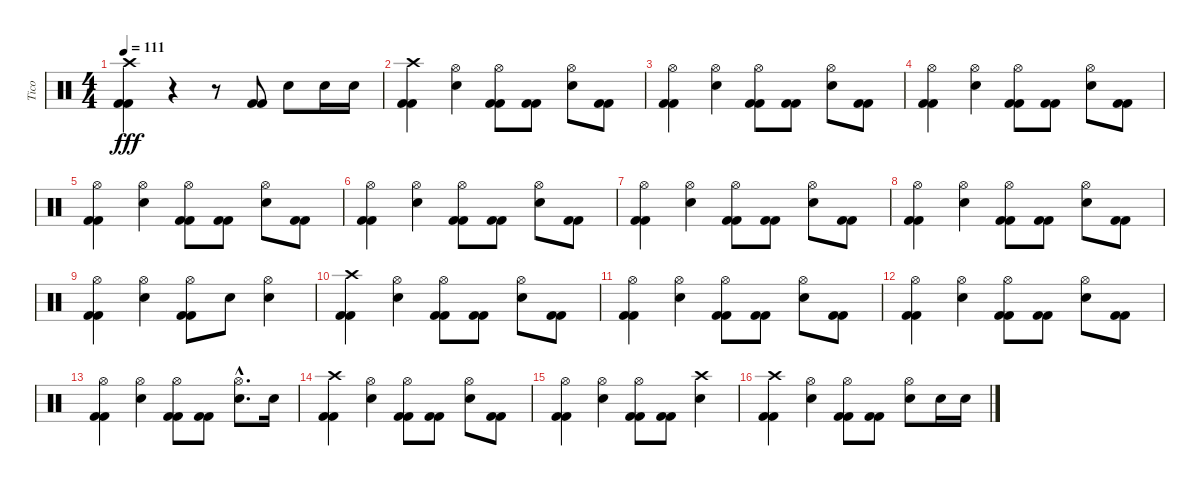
\track ("Tico" "Tico") {instrument percussion}
\staff {score}
\articulation defaults
\ts (4 4)
\tempo 111
\clef neutral
\ks c
("Crash high (hit)" "Kick (hit) 2" "Kick (hit) 2").4{dy fff} r.4 r.8 ("Kick (hit) 2" "Kick (hit) 2").8 "Snare (hit) 2".8 "Snare (hit) 2".16 "Snare (hit) 2".16 |
("Crash high (hit)" "Kick (hit) 2" "Kick (hit) 2").4 ("Hi-Hat (open)" "Snare (hit) 2").4 ("Hi-Hat (open)" "Kick (hit) 2" "Kick (hit) 2").8 ("Kick (hit) 2" "Kick (hit) 2").8 ("Hi-Hat (open)" "Snare (hit) 2").8 ("Kick (hit) 2" "Kick (hit) 2").8 |
("Hi-Hat (open)" "Kick (hit) 2" "Kick (hit) 2").4 ("Hi-Hat (open)" "Snare (hit) 2").4 ("Hi-Hat (open)" "Kick (hit) 2" "Kick (hit) 2").8 ("Kick (hit) 2" "Kick (hit) 2").8 ("Hi-Hat (open)" "Snare (hit) 2").8 ("Kick (hit) 2" "Kick (hit) 2").8 |
("Hi-Hat (open)" "Kick (hit) 2" "Kick (hit) 2").4 ("Hi-Hat (open)" "Snare (hit) 2").4 ("Hi-Hat (open)" "Kick (hit) 2" "Kick (hit) 2").8 ("Kick (hit) 2" "Kick (hit) 2").8 ("Hi-Hat (open)" "Snare (hit) 2").8 ("Kick (hit) 2" "Kick (hit) 2").8 |
("Hi-Hat (open)" "Kick (hit) 2" "Kick (hit) 2").4 ("Hi-Hat (open)" "Snare (hit) 2").4 ("Hi-Hat (open)" "Kick (hit) 2" "Kick (hit) 2").8 ("Kick (hit) 2" "Kick (hit) 2").8 ("Hi-Hat (open)" "Snare (hit) 2").8 ("Kick (hit) 2" "Kick (hit) 2").8 |
("Hi-Hat (open)" "Kick (hit) 2" "Kick (hit) 2").4 ("Hi-Hat (open)" "Snare (hit) 2").4 ("Hi-Hat (open)" "Kick (hit) 2" "Kick (hit) 2").8 ("Kick (hit) 2" "Kick (hit) 2").8 ("Hi-Hat (open)" "Snare (hit) 2").8 ("Kick (hit) 2" "Kick (hit) 2").8 |
("Hi-Hat (open)" "Kick (hit) 2" "Kick (hit) 2").4 ("Hi-Hat (open)" "Snare (hit) 2").4 ("Hi-Hat (open)" "Kick (hit) 2" "Kick (hit) 2").8 ("Kick (hit) 2" "Kick (hit) 2").8 ("Hi-Hat (open)" "Snare (hit) 2").8 ("Kick (hit) 2" "Kick (hit) 2").8 |
("Hi-Hat (open)" "Kick (hit) 2" "Kick (hit) 2").4 ("Hi-Hat (open)" "Snare (hit) 2").4 ("Hi-Hat (open)" "Kick (hit) 2" "Kick (hit) 2").8 ("Kick (hit) 2" "Kick (hit) 2").8 ("Hi-Hat (open)" "Snare (hit) 2").8 ("Kick (hit) 2" "Kick (hit) 2").8 |
("Hi-Hat (open)" "Kick (hit) 2" "Kick (hit) 2").4 ("Hi-Hat (open)" "Snare (hit) 2").4 ("Hi-Hat (open)" "Kick (hit) 2" "Kick (hit) 2").8 "Snare (hit) 2".8 ("Hi-Hat (open)" "Snare (hit) 2").4 |
("Crash high (hit)" "Kick (hit) 2" "Kick (hit) 2").4 ("Hi-Hat (open)" "Snare (hit) 2").4 ("Hi-Hat (open)" "Kick (hit) 2" "Kick (hit) 2").8 ("Kick (hit) 2" "Kick (hit) 2").8 ("Hi-Hat (open)" "Snare (hit) 2").8 ("Kick (hit) 2" "Kick (hit) 2").8 |
("Hi-Hat (open)" "Kick (hit) 2" "Kick (hit) 2").4 ("Hi-Hat (open)" "Snare (hit) 2").4 ("Hi-Hat (open)" "Kick (hit) 2" "Kick (hit) 2").8 ("Kick (hit) 2" "Kick (hit) 2").8 ("Hi-Hat (open)" "Snare (hit) 2").8 ("Kick (hit) 2" "Kick (hit) 2").8 |
("Hi-Hat (open)" "Kick (hit) 2" "Kick (hit) 2").4 ("Hi-Hat (open)" "Snare (hit) 2").4 ("Hi-Hat (open)" "Kick (hit) 2" "Kick (hit) 2").8 ("Kick (hit) 2" "Kick (hit) 2").8 ("Hi-Hat (open)" "Snare (hit) 2").8 ("Kick (hit) 2" "Kick (hit) 2").8 |
("Hi-Hat (open)" "Kick (hit) 2" "Kick (hit) 2").4 ("Hi-Hat (open)" "Snare (hit) 2").4 ("Hi-Hat (open)" "Kick (hit) 2" "Kick (hit) 2").8 ("Kick (hit) 2" "Kick (hit) 2").8 ("Hi-Hat (open)"{hac} "Snare (hit) 2"{hac}).8{d} "Snare (hit) 2".16 |
("Crash high (hit)" "Kick (hit) 2" "Kick (hit) 2").4 ("Hi-Hat (open)" "Snare (hit) 2").4 ("Hi-Hat (open)" "Kick (hit) 2" "Kick (hit) 2").8 ("Kick (hit) 2" "Kick (hit) 2").8 ("Hi-Hat (open)" "Snare (hit) 2").8 ("Kick (hit) 2" "Kick (hit) 2").8 |
("Hi-Hat (open)" "Kick (hit) 2" "Kick (hit) 2").4 ("Hi-Hat (open)" "Snare (hit) 2").4 ("Hi-Hat (open)" "Kick (hit) 2" "Kick (hit) 2").8 ("Kick (hit) 2" "Kick (hit) 2").8 ("Crash high (hit)" "Snare (hit) 2").4 |
("Crash high (hit)" "Kick (hit) 2" "Kick (hit) 2").4 ("Hi-Hat (open)" "Snare (hit) 2").4 ("Hi-Hat (open)" "Kick (hit) 2" "Kick (hit) 2").8 ("Kick (hit) 2" "Kick (hit) 2").8 ("Hi-Hat (open)" "Snare (hit) 2").8 "Snare (hit) 2".16 "Snare (hit) 2".16
